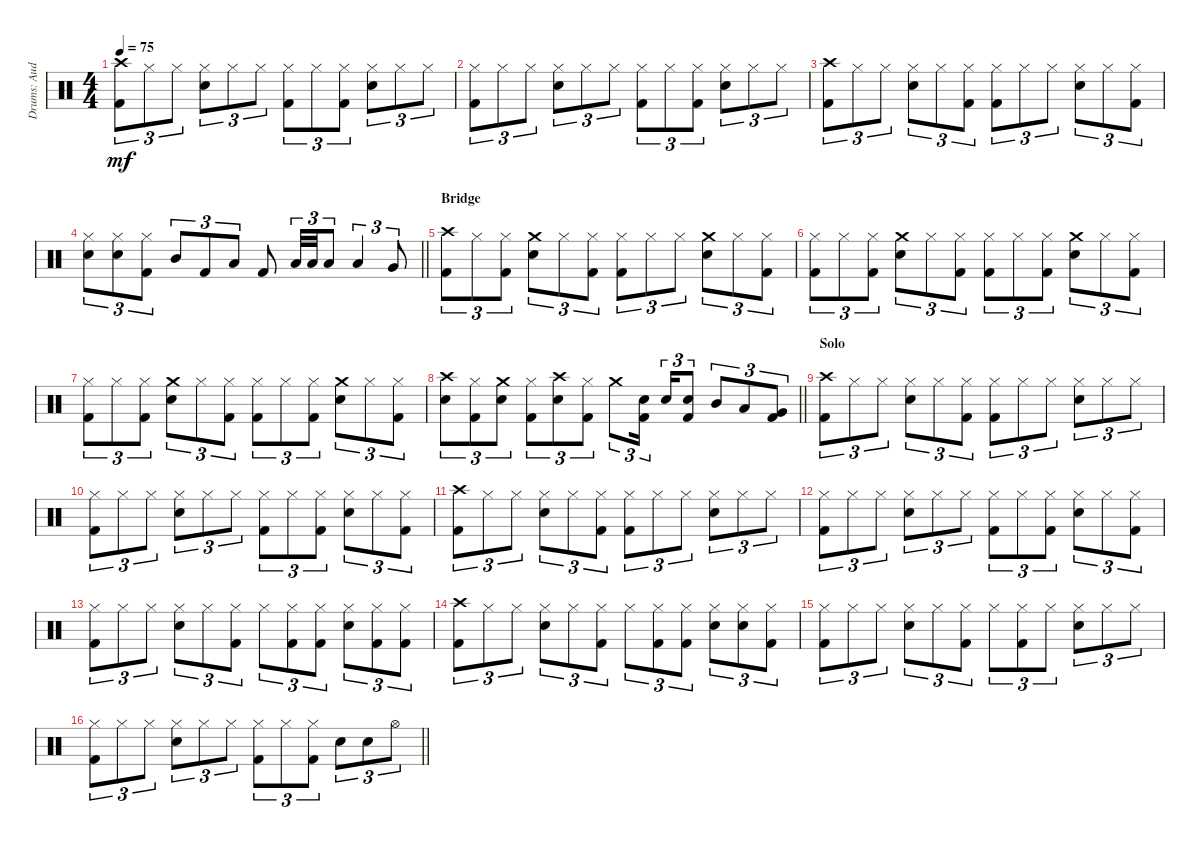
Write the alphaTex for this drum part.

\track ("Drums: Audie" "Drums: Aud") {instrument percussion}
\staff {score}
\articulation defaults
\ts (4 4)
\tempo 75
\clef neutral
\ks c
("Crash high (hit)" "Kick (hit) 2").8{tu (3 2) dy mf} "Hi-Hat (closed)".8{tu (3 2)} "Hi-Hat (closed)".8{tu (3 2)} ("Hi-Hat (closed)" "Electric Snare (hit)").8{tu (3 2)} "Hi-Hat (closed)".8{tu (3 2)} "Hi-Hat (closed)".8{tu (3 2)} ("Hi-Hat (closed)" "Kick (hit) 2").8{tu (3 2)} "Hi-Hat (closed)".8{tu (3 2)} ("Hi-Hat (closed)" "Kick (hit) 2").8{tu (3 2)} ("Hi-Hat (closed)" "Electric Snare (hit)").8{tu (3 2)} "Hi-Hat (closed)".8{tu (3 2)} "Hi-Hat (closed)".8{tu (3 2)} |
("Hi-Hat (closed)" "Kick (hit) 2").8{tu (3 2)} "Hi-Hat (closed)".8{tu (3 2)} "Hi-Hat (closed)".8{tu (3 2)} ("Hi-Hat (closed)" "Electric Snare (hit)").8{tu (3 2)} "Hi-Hat (closed)".8{tu (3 2)} "Hi-Hat (closed)".8{tu (3 2)} ("Hi-Hat (closed)" "Kick (hit) 2").8{tu (3 2)} "Hi-Hat (closed)".8{tu (3 2)} ("Hi-Hat (closed)" "Kick (hit) 2").8{tu (3 2)} ("Hi-Hat (closed)" "Electric Snare (hit)").8{tu (3 2)} "Hi-Hat (closed)".8{tu (3 2)} "Hi-Hat (closed)".8{tu (3 2)} |
("Crash high (hit)" "Kick (hit) 2").8{tu (3 2)} "Hi-Hat (closed)".8{tu (3 2)} "Hi-Hat (closed)".8{tu (3 2)} ("Hi-Hat (closed)" "Electric Snare (hit)").8{tu (3 2)} "Hi-Hat (closed)".8{tu (3 2)} ("Hi-Hat (closed)" "Kick (hit) 2").8{tu (3 2)} ("Hi-Hat (closed)" "Kick (hit) 2").8{tu (3 2)} "Hi-Hat (closed)".8{tu (3 2)} "Hi-Hat (closed)".8{tu (3 2)} ("Hi-Hat (closed)" "Electric Snare (hit)").8{tu (3 2)} "Hi-Hat (closed)".8{tu (3 2)} ("Hi-Hat (closed)" "Kick (hit) 2").8{tu (3 2)} |
\barLineRight lightlight
("Hi-Hat (closed)" "Electric Snare (hit)").8{tu (3 2)} ("Hi-Hat (closed)" "Electric Snare (hit)").8{tu (3 2)} ("Hi-Hat (closed)" "Kick (hit) 2").8{tu (3 2)} "Mid Tom (hit)".8{tu (3 2)} "Kick (hit) 2".8{tu (3 2)} "Low Tom (hit)".8{tu (3 2)} "Kick (hit) 2".8 "Low Tom (hit)".32{tu (3 2)} "Low Tom (hit)".32{tu (3 2)} "Low Tom (hit)".8{tu (3 2)} "Low Tom (hit)".4{tu (3 2)} "Very Low Tom (hit)".8{tu (3 2)} |
\section ("" "Bridge")
("Crash high (hit)" "Kick (hit) 2").8{tu (3 2)} "Hi-Hat (closed)".8{tu (3 2)} ("Hi-Hat (closed)" "Kick (hit) 2").8{tu (3 2)} ("Crash medium (hit)" "Electric Snare (hit)").8{tu (3 2)} "Hi-Hat (closed)".8{tu (3 2)} ("Hi-Hat (closed)" "Kick (hit) 2").8{tu (3 2)} ("Hi-Hat (closed)" "Kick (hit) 2").8{tu (3 2)} "Hi-Hat (closed)".8{tu (3 2)} "Hi-Hat (closed)".8{tu (3 2)} ("Crash medium (hit)" "Electric Snare (hit)").8{tu (3 2)} "Hi-Hat (closed)".8{tu (3 2)} ("Hi-Hat (closed)" "Kick (hit) 2").8{tu (3 2)} |
("Hi-Hat (closed)" "Kick (hit) 2").8{tu (3 2)} "Hi-Hat (closed)".8{tu (3 2)} ("Hi-Hat (closed)" "Kick (hit) 2").8{tu (3 2)} ("Crash medium (hit)" "Electric Snare (hit)").8{tu (3 2)} "Hi-Hat (closed)".8{tu (3 2)} ("Hi-Hat (closed)" "Kick (hit) 2").8{tu (3 2)} ("Hi-Hat (closed)" "Kick (hit) 2").8{tu (3 2)} "Hi-Hat (closed)".8{tu (3 2)} ("Hi-Hat (closed)" "Kick (hit) 2").8{tu (3 2)} ("Crash medium (hit)" "Electric Snare (hit)").8{tu (3 2)} "Hi-Hat (closed)".8{tu (3 2)} ("Hi-Hat (closed)" "Kick (hit) 2").8{tu (3 2)} |
("Hi-Hat (closed)" "Kick (hit) 2").8{tu (3 2)} "Hi-Hat (closed)".8{tu (3 2)} ("Hi-Hat (closed)" "Kick (hit) 2").8{tu (3 2)} ("Crash medium (hit)" "Electric Snare (hit)").8{tu (3 2)} "Hi-Hat (closed)".8{tu (3 2)} ("Hi-Hat (closed)" "Kick (hit) 2").8{tu (3 2)} ("Hi-Hat (closed)" "Kick (hit) 2").8{tu (3 2)} "Hi-Hat (closed)".8{tu (3 2)} ("Hi-Hat (closed)" "Kick (hit) 2").8{tu (3 2)} ("Crash medium (hit)" "Electric Snare (hit)").8{tu (3 2)} "Hi-Hat (closed)".8{tu (3 2)} ("Hi-Hat (closed)" "Kick (hit) 2").8{tu (3 2)} |
\barLineRight lightlight
("Crash high (hit)" "Electric Snare (hit)").8{tu (3 2)} ("Hi-Hat (closed)" "Kick (hit) 2").8{tu (3 2)} ("Crash medium (hit)" "Electric Snare (hit)").8{tu (3 2)} ("Hi-Hat (closed)" "Kick (hit) 2").8{tu (3 2)} ("Crash high (hit)" "Electric Snare (hit)").8{tu (3 2)} ("Hi-Hat (closed)" "Kick (hit) 2").8{tu (3 2)} "Crash medium (hit)".8{tu (3 2)} ("Snare (hit) 2" "Kick (hit) 2").16{tu (3 2) beam splitsecondary} "Snare (hit) 2".16{tu (3 2)} ("Snare (hit) 2" "Kick (hit) 2").8{tu (3 2)} "Mid Tom (hit)".8{tu (3 2)} "Low Tom (hit)".8{tu (3 2)} ("Very Low Tom (hit)" "Kick (hit) 2").8{tu (3 2)} |
\section ("" "Solo")
("Crash high (hit)" "Kick (hit) 2").8{tu (3 2)} "Hi-Hat (closed)".8{tu (3 2)} "Hi-Hat (closed)".8{tu (3 2)} ("Hi-Hat (closed)" "Electric Snare (hit)").8{tu (3 2)} "Hi-Hat (closed)".8{tu (3 2)} ("Hi-Hat (closed)" "Kick (hit) 2").8{tu (3 2)} ("Hi-Hat (closed)" "Kick (hit) 2").8{tu (3 2)} "Hi-Hat (closed)".8{tu (3 2)} "Hi-Hat (closed)".8{tu (3 2)} ("Hi-Hat (closed)" "Electric Snare (hit)").8{tu (3 2)} "Hi-Hat (closed)".8{tu (3 2)} "Hi-Hat (closed)".8{tu (3 2)} |
("Hi-Hat (closed)" "Kick (hit) 2").8{tu (3 2)} "Hi-Hat (closed)".8{tu (3 2)} "Hi-Hat (closed)".8{tu (3 2)} ("Hi-Hat (closed)" "Electric Snare (hit)").8{tu (3 2)} "Hi-Hat (closed)".8{tu (3 2)} "Hi-Hat (closed)".8{tu (3 2)} ("Hi-Hat (closed)" "Kick (hit) 2").8{tu (3 2)} "Hi-Hat (closed)".8{tu (3 2)} ("Hi-Hat (closed)" "Kick (hit) 2").8{tu (3 2)} ("Hi-Hat (closed)" "Electric Snare (hit)").8{tu (3 2)} "Hi-Hat (closed)".8{tu (3 2)} ("Hi-Hat (closed)" "Kick (hit) 2").8{tu (3 2)} |
("Crash high (hit)" "Kick (hit) 2").8{tu (3 2)} "Hi-Hat (closed)".8{tu (3 2)} "Hi-Hat (closed)".8{tu (3 2)} ("Hi-Hat (closed)" "Electric Snare (hit)").8{tu (3 2)} "Hi-Hat (closed)".8{tu (3 2)} ("Hi-Hat (closed)" "Kick (hit) 2").8{tu (3 2)} ("Hi-Hat (closed)" "Kick (hit) 2").8{tu (3 2)} "Hi-Hat (closed)".8{tu (3 2)} "Hi-Hat (closed)".8{tu (3 2)} ("Hi-Hat (closed)" "Electric Snare (hit)").8{tu (3 2)} "Hi-Hat (closed)".8{tu (3 2)} "Hi-Hat (closed)".8{tu (3 2)} |
("Hi-Hat (closed)" "Kick (hit) 2").8{tu (3 2)} "Hi-Hat (closed)".8{tu (3 2)} "Hi-Hat (closed)".8{tu (3 2)} ("Hi-Hat (closed)" "Electric Snare (hit)").8{tu (3 2)} "Hi-Hat (closed)".8{tu (3 2)} "Hi-Hat (closed)".8{tu (3 2)} ("Hi-Hat (closed)" "Kick (hit) 2").8{tu (3 2)} "Hi-Hat (closed)".8{tu (3 2)} ("Hi-Hat (closed)" "Kick (hit) 2").8{tu (3 2)} ("Hi-Hat (closed)" "Electric Snare (hit)").8{tu (3 2)} "Hi-Hat (closed)".8{tu (3 2)} ("Hi-Hat (closed)" "Kick (hit) 2").8{tu (3 2)} |
("Hi-Hat (closed)" "Kick (hit) 2").8{tu (3 2)} "Hi-Hat (closed)".8{tu (3 2)} "Hi-Hat (closed)".8{tu (3 2)} ("Hi-Hat (closed)" "Electric Snare (hit)").8{tu (3 2)} "Hi-Hat (closed)".8{tu (3 2)} ("Hi-Hat (closed)" "Kick (hit) 2").8{tu (3 2)} "Hi-Hat (closed)".8{tu (3 2)} ("Hi-Hat (closed)" "Kick (hit) 2").8{tu (3 2)} ("Hi-Hat (closed)" "Kick (hit) 2").8{tu (3 2)} ("Hi-Hat (closed)" "Electric Snare (hit)").8{tu (3 2)} ("Hi-Hat (closed)" "Kick (hit) 2").8{tu (3 2)} ("Hi-Hat (closed)" "Kick (hit) 2").8{tu (3 2)} |
("Crash high (hit)" "Kick (hit) 2").8{tu (3 2)} "Hi-Hat (closed)".8{tu (3 2)} "Hi-Hat (closed)".8{tu (3 2)} ("Hi-Hat (closed)" "Electric Snare (hit)").8{tu (3 2)} "Hi-Hat (closed)".8{tu (3 2)} ("Hi-Hat (closed)" "Kick (hit) 2").8{tu (3 2)} "Hi-Hat (closed)".8{tu (3 2)} ("Hi-Hat (closed)" "Kick (hit) 2").8{tu (3 2)} ("Hi-Hat (closed)" "Kick (hit) 2").8{tu (3 2)} ("Hi-Hat (closed)" "Electric Snare (hit)").8{tu (3 2)} ("Hi-Hat (closed)" "Snare (hit) 2").8{tu (3 2)} ("Hi-Hat (closed)" "Kick (hit) 2").8{tu (3 2)} |
("Hi-Hat (closed)" "Kick (hit) 2").8{tu (3 2)} "Hi-Hat (closed)".8{tu (3 2)} "Hi-Hat (closed)".8{tu (3 2)} ("Hi-Hat (closed)" "Electric Snare (hit)").8{tu (3 2)} "Hi-Hat (closed)".8{tu (3 2)} ("Hi-Hat (closed)" "Kick (hit) 2").8{tu (3 2)} "Hi-Hat (closed)".8{tu (3 2)} ("Hi-Hat (closed)" "Kick (hit) 2").8{tu (3 2)} "Hi-Hat (closed)".8{tu (3 2)} ("Hi-Hat (closed)" "Electric Snare (hit)").8{tu (3 2)} "Hi-Hat (closed)".8{tu (3 2)} "Hi-Hat (closed)".8{tu (3 2)} |
\barLineRight lightlight
("Hi-Hat (closed)" "Kick (hit) 2").8{tu (3 2)} "Hi-Hat (closed)".8{tu (3 2)} "Hi-Hat (closed)".8{tu (3 2)} ("Hi-Hat (closed)" "Electric Snare (hit)").8{tu (3 2)} "Hi-Hat (closed)".8{tu (3 2)} "Hi-Hat (closed)".8{tu (3 2)} ("Hi-Hat (closed)" "Kick (hit) 2").8{tu (3 2)} "Hi-Hat (closed)".8{tu (3 2)} ("Hi-Hat (closed)" "Kick (hit) 2").8{tu (3 2)} "Electric Snare (hit)".8{tu (3 2)} "Electric Snare (hit)".8{tu (3 2)} "Hi-Hat (open)".8{tu (3 2)}
